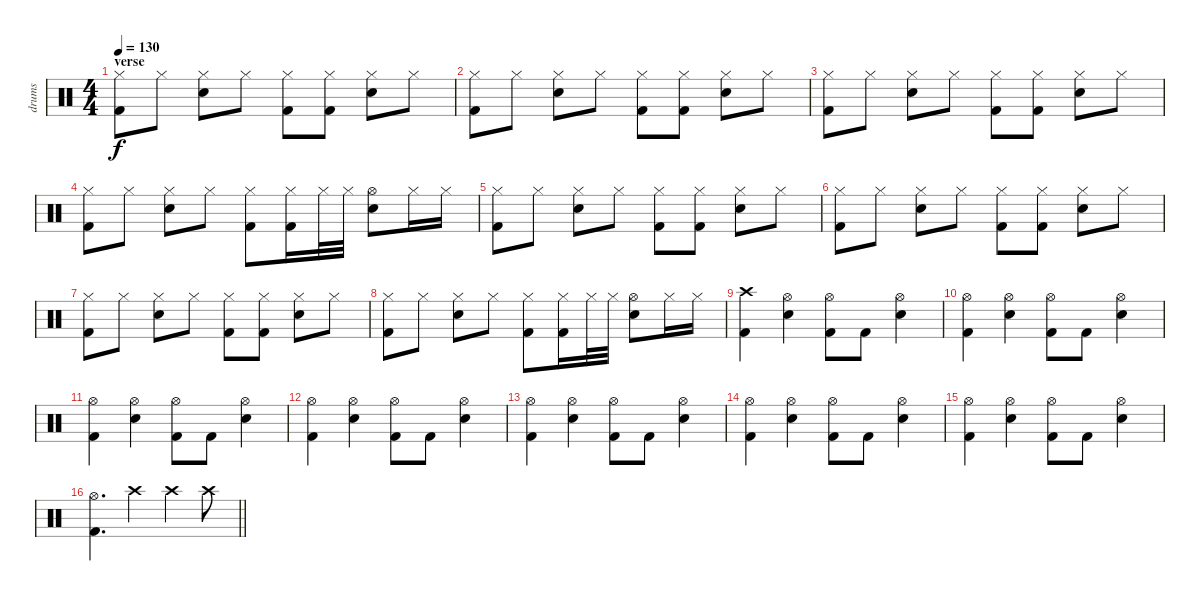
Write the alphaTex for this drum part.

\track ("drums" "drums") {instrument percussion}
\staff {score}
\articulation defaults
\ts (4 4)
\section ("" "verse")
\tempo 130
\clef neutral
\ks c
("Hi-Hat (closed)" "Kick (hit) 2").8{dy f} "Hi-Hat (closed)".8 ("Hi-Hat (closed)" "Snare (hit) 2").8 "Hi-Hat (closed)".8 ("Hi-Hat (closed)" "Kick (hit) 2").8 ("Hi-Hat (closed)" "Kick (hit) 2").8 ("Hi-Hat (closed)" "Snare (hit) 2").8 "Hi-Hat (closed)".8 |
("Hi-Hat (closed)" "Kick (hit) 2").8 "Hi-Hat (closed)".8 ("Hi-Hat (closed)" "Snare (hit) 2").8 "Hi-Hat (closed)".8 ("Hi-Hat (closed)" "Kick (hit) 2").8 ("Hi-Hat (closed)" "Kick (hit) 2").8 ("Hi-Hat (closed)" "Snare (hit) 2").8 "Hi-Hat (closed)".8 |
("Hi-Hat (closed)" "Kick (hit) 2").8 "Hi-Hat (closed)".8 ("Hi-Hat (closed)" "Snare (hit) 2").8 "Hi-Hat (closed)".8 ("Hi-Hat (closed)" "Kick (hit) 2").8 ("Hi-Hat (closed)" "Kick (hit) 2").8 ("Hi-Hat (closed)" "Snare (hit) 2").8 "Hi-Hat (closed)".8 |
("Hi-Hat (closed)" "Kick (hit) 2").8 "Hi-Hat (closed)".8 ("Hi-Hat (closed)" "Snare (hit) 2").8 "Hi-Hat (closed)".8 ("Hi-Hat (closed)" "Kick (hit) 2").8 ("Hi-Hat (closed)" "Kick (hit) 2").16 "Hi-Hat (closed)".32 "Hi-Hat (closed)".32 ("Hi-Hat (open)" "Snare (hit) 2").8 "Hi-Hat (closed)".16 "Hi-Hat (closed)".16 |
("Hi-Hat (closed)" "Kick (hit) 2").8 "Hi-Hat (closed)".8 ("Hi-Hat (closed)" "Snare (hit) 2").8 "Hi-Hat (closed)".8 ("Hi-Hat (closed)" "Kick (hit) 2").8 ("Hi-Hat (closed)" "Kick (hit) 2").8 ("Hi-Hat (closed)" "Snare (hit) 2").8 "Hi-Hat (closed)".8 |
("Hi-Hat (closed)" "Kick (hit) 2").8 "Hi-Hat (closed)".8 ("Hi-Hat (closed)" "Snare (hit) 2").8 "Hi-Hat (closed)".8 ("Hi-Hat (closed)" "Kick (hit) 2").8 ("Hi-Hat (closed)" "Kick (hit) 2").8 ("Hi-Hat (closed)" "Snare (hit) 2").8 "Hi-Hat (closed)".8 |
("Hi-Hat (closed)" "Kick (hit) 2").8 "Hi-Hat (closed)".8 ("Hi-Hat (closed)" "Snare (hit) 2").8 "Hi-Hat (closed)".8 ("Hi-Hat (closed)" "Kick (hit) 2").8 ("Hi-Hat (closed)" "Kick (hit) 2").8 ("Hi-Hat (closed)" "Snare (hit) 2").8 "Hi-Hat (closed)".8 |
("Hi-Hat (closed)" "Kick (hit) 2").8 "Hi-Hat (closed)".8 ("Hi-Hat (closed)" "Snare (hit) 2").8 "Hi-Hat (closed)".8 ("Hi-Hat (closed)" "Kick (hit) 2").8 ("Hi-Hat (closed)" "Kick (hit) 2").16 "Hi-Hat (closed)".32 "Hi-Hat (closed)".32 ("Hi-Hat (open)" "Snare (hit) 2").8 "Hi-Hat (closed)".16 "Hi-Hat (closed)".16 |
("Crash high (hit)" "Kick (hit) 2").4 ("Hi-Hat (open)" "Snare (hit) 2").4 ("Hi-Hat (open)" "Kick (hit) 2").8 "Kick (hit) 2".8 ("Hi-Hat (open)" "Snare (hit) 2").4 |
("Hi-Hat (open)" "Kick (hit) 2").4 ("Hi-Hat (open)" "Snare (hit) 2").4 ("Hi-Hat (open)" "Kick (hit) 2").8 "Kick (hit) 2".8 ("Hi-Hat (open)" "Snare (hit) 2").4 |
("Hi-Hat (open)" "Kick (hit) 2").4 ("Hi-Hat (open)" "Snare (hit) 2").4 ("Hi-Hat (open)" "Kick (hit) 2").8 "Kick (hit) 2".8 ("Hi-Hat (open)" "Snare (hit) 2").4 |
("Hi-Hat (open)" "Kick (hit) 2").4 ("Hi-Hat (open)" "Snare (hit) 2").4 ("Hi-Hat (open)" "Kick (hit) 2").8 "Kick (hit) 2".8 ("Hi-Hat (open)" "Snare (hit) 2").4 |
("Hi-Hat (open)" "Kick (hit) 2").4 ("Hi-Hat (open)" "Snare (hit) 2").4 ("Hi-Hat (open)" "Kick (hit) 2").8 "Kick (hit) 2".8 ("Hi-Hat (open)" "Snare (hit) 2").4 |
("Hi-Hat (open)" "Kick (hit) 2").4 ("Hi-Hat (open)" "Snare (hit) 2").4 ("Hi-Hat (open)" "Kick (hit) 2").8 "Kick (hit) 2".8 ("Hi-Hat (open)" "Snare (hit) 2").4 |
("Hi-Hat (open)" "Kick (hit) 2").4 ("Hi-Hat (open)" "Snare (hit) 2").4 ("Hi-Hat (open)" "Kick (hit) 2").8 "Kick (hit) 2".8 ("Hi-Hat (open)" "Snare (hit) 2").4 |
\barLineRight lightlight
("Hi-Hat (open)" "Kick (hit) 2").4{d} "Crash high (hit)".4 "Crash high (hit)".4 "Crash high (hit)".8
